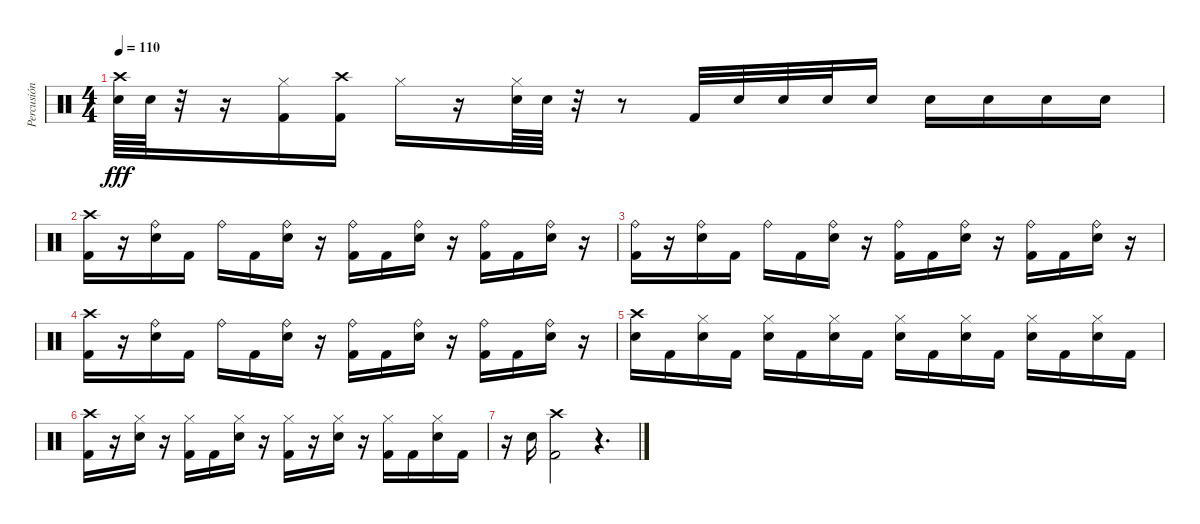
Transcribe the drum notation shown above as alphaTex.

\track ("Percusión" "Percusión") {instrument percussion}
\staff {score}
\articulation defaults
\ts (4 4)
\tempo 110
\clef neutral
\ks c
("Electric Snare (hit)" "Crash high (hit)").64{dy fff} "Electric Snare (hit)".64 r.32 r.16 ("Kick (hit) 2" "Hi-Hat (closed)").16 ("Kick (hit) 2" "Crash high (hit)").16 "Hi-Hat (closed)".16 r.16 ("Electric Snare (hit)" "Hi-Hat (closed)").64 "Electric Snare (hit)".64 r.32 r.8 "Kick (hit) 2".32 "Electric Snare (hit)".32 "Electric Snare (hit)".32 "Electric Snare (hit)".32 "Electric Snare (hit)".16 "Electric Snare (hit)".16 "Electric Snare (hit)".16 "Electric Snare (hit)".16 "Electric Snare (hit)".16 |
("Kick (hit) 2" "Crash high (hit)").16 r.16 ("Electric Snare (hit)" "Ride (bell)").16 "Kick (hit) 2".16 "Ride (bell)".16 "Kick (hit) 2".16 ("Electric Snare (hit)" "Ride (bell)").16 r.16 ("Kick (hit) 2" "Ride (bell)").16 "Kick (hit) 2".16 ("Electric Snare (hit)" "Ride (bell)").16 r.16 ("Kick (hit) 2" "Ride (bell)").16 "Kick (hit) 2".16 ("Electric Snare (hit)" "Ride (bell)").16 r.16 |
("Kick (hit) 2" "Ride (bell)").16 r.16 ("Electric Snare (hit)" "Ride (bell)").16 "Kick (hit) 2".16 "Ride (bell)".16 "Kick (hit) 2".16 ("Electric Snare (hit)" "Ride (bell)").16 r.16 ("Kick (hit) 2" "Ride (bell)").16 "Kick (hit) 2".16 ("Electric Snare (hit)" "Ride (bell)").16 r.16 ("Kick (hit) 2" "Ride (bell)").16 "Kick (hit) 2".16 ("Electric Snare (hit)" "Ride (bell)").16 r.16 |
("Kick (hit) 2" "Crash high (hit)").16 r.16 ("Electric Snare (hit)" "Ride (bell)").16 "Kick (hit) 2".16 "Ride (bell)".16 "Kick (hit) 2".16 ("Electric Snare (hit)" "Ride (bell)").16 r.16 ("Kick (hit) 2" "Ride (bell)").16 "Kick (hit) 2".16 ("Electric Snare (hit)" "Ride (bell)").16 r.16 ("Kick (hit) 2" "Ride (bell)").16 "Kick (hit) 2".16 ("Electric Snare (hit)" "Ride (bell)").16 r.16 |
("Crash high (hit)" "Electric Snare (hit)").16 "Kick (hit) 2".16 ("Hi-Hat (closed)" "Electric Snare (hit)").16 "Kick (hit) 2".16 ("Hi-Hat (closed)" "Electric Snare (hit)").16 "Kick (hit) 2".16 ("Hi-Hat (closed)" "Electric Snare (hit)").16 "Kick (hit) 2".16 ("Hi-Hat (closed)" "Electric Snare (hit)").16 "Kick (hit) 2".16 ("Hi-Hat (closed)" "Electric Snare (hit)").16 "Kick (hit) 2".16 ("Hi-Hat (closed)" "Electric Snare (hit)").16 "Kick (hit) 2".16 ("Hi-Hat (closed)" "Electric Snare (hit)").16 "Kick (hit) 2".16 |
("Kick (hit) 2" "Crash high (hit)").16 r.16 ("Electric Snare (hit)" "Hi-Hat (closed)").16 r.16 ("Kick (hit) 2" "Hi-Hat (closed)").16 "Kick (hit) 2".16 ("Electric Snare (hit)" "Hi-Hat (closed)").16 r.16 ("Kick (hit) 2" "Hi-Hat (closed)").16 r.16 ("Electric Snare (hit)" "Hi-Hat (closed)").16 r.16 ("Kick (hit) 2" "Hi-Hat (closed)").16 "Kick (hit) 2".16 ("Electric Snare (hit)" "Hi-Hat (closed)").16 "Kick (hit) 2".16 |
r.16 "Electric Snare (hit)".16 ("Kick (hit) 2" "Crash high (hit)").2 r.4{d}
